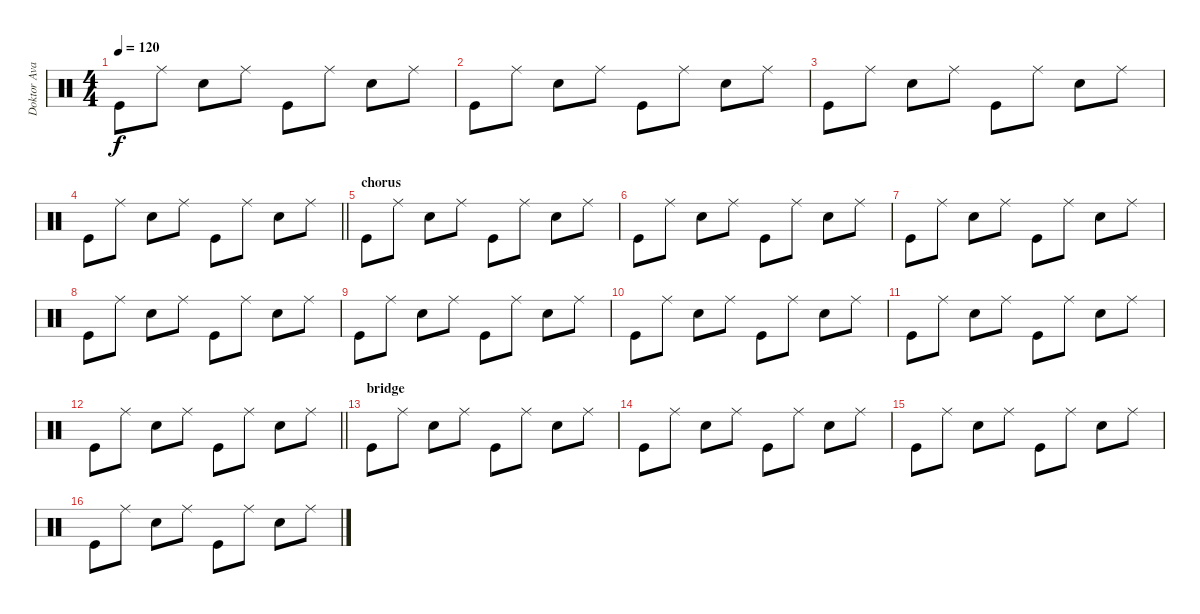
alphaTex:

\track ("Doktor Avalanche" "Doktor Ava") {instrument percussion}
\staff {score}
\articulation defaults
\ts (4 4)
\tempo 120
\clef neutral
\ks c "Kick (hit)".8{dy f} "Ride (middle)".8 "Snare (hit) 2".8 "Ride (middle)".8 "Kick (hit)".8 "Ride (middle)".8 "Snare (hit) 2".8 "Ride (middle)".8
|
"Kick (hit)".8 "Ride (middle)".8 "Snare (hit) 2".8 "Ride (middle)".8 "Kick (hit)".8 "Ride (middle)".8 "Snare (hit) 2".8 "Ride (middle)".8 |
"Kick (hit)".8 "Ride (middle)".8 "Snare (hit) 2".8 "Ride (middle)".8 "Kick (hit)".8 "Ride (middle)".8 "Snare (hit) 2".8 "Ride (middle)".8 |
\barLineRight lightlight "Kick (hit)".8 "Ride (middle)".8 "Snare (hit) 2".8 "Ride (middle)".8 "Kick (hit)".8 "Ride (middle)".8 "Snare (hit) 2".8 "Ride (middle)".8
|
\section ("" "chorus")
"Kick (hit)".8 "Ride (middle)".8 "Snare (hit) 2".8 "Ride (middle)".8 "Kick (hit)".8 "Ride (middle)".8 "Snare (hit) 2".8 "Ride (middle)".8 |
"Kick (hit)".8 "Ride (middle)".8 "Snare (hit) 2".8 "Ride (middle)".8 "Kick (hit)".8 "Ride (middle)".8 "Snare (hit) 2".8 "Ride (middle)".8 |
"Kick (hit)".8 "Ride (middle)".8 "Snare (hit) 2".8 "Ride (middle)".8 "Kick (hit)".8 "Ride (middle)".8 "Snare (hit) 2".8 "Ride (middle)".8 |
"Kick (hit)".8 "Ride (middle)".8 "Snare (hit) 2".8 "Ride (middle)".8 "Kick (hit)".8 "Ride (middle)".8 "Snare (hit) 2".8 "Ride (middle)".8 |
"Kick (hit)".8 "Ride (middle)".8 "Snare (hit) 2".8 "Ride (middle)".8 "Kick (hit)".8 "Ride (middle)".8 "Snare (hit) 2".8 "Ride (middle)".8 |
"Kick (hit)".8 "Ride (middle)".8 "Snare (hit) 2".8 "Ride (middle)".8 "Kick (hit)".8 "Ride (middle)".8 "Snare (hit) 2".8 "Ride (middle)".8 |
"Kick (hit)".8 "Ride (middle)".8 "Snare (hit) 2".8 "Ride (middle)".8 "Kick (hit)".8 "Ride (middle)".8 "Snare (hit) 2".8 "Ride (middle)".8 |
\barLineRight lightlight "Kick (hit)".8 "Ride (middle)".8 "Snare (hit) 2".8 "Ride (middle)".8 "Kick (hit)".8 "Ride (middle)".8 "Snare (hit) 2".8 "Ride (middle)".8
|
\section ("" "bridge")
"Kick (hit)".8 "Ride (middle)".8 "Snare (hit) 2".8 "Ride (middle)".8 "Kick (hit)".8 "Ride (middle)".8 "Snare (hit) 2".8 "Ride (middle)".8 |
"Kick (hit)".8 "Ride (middle)".8 "Snare (hit) 2".8 "Ride (middle)".8 "Kick (hit)".8 "Ride (middle)".8 "Snare (hit) 2".8 "Ride (middle)".8 |
"Kick (hit)".8 "Ride (middle)".8 "Snare (hit) 2".8 "Ride (middle)".8 "Kick (hit)".8 "Ride (middle)".8 "Snare (hit) 2".8 "Ride (middle)".8 |
"Kick (hit)".8 "Ride (middle)".8 "Snare (hit) 2".8 "Ride (middle)".8 "Kick (hit)".8 "Ride (middle)".8 "Snare (hit) 2".8 "Ride (middle)".8
